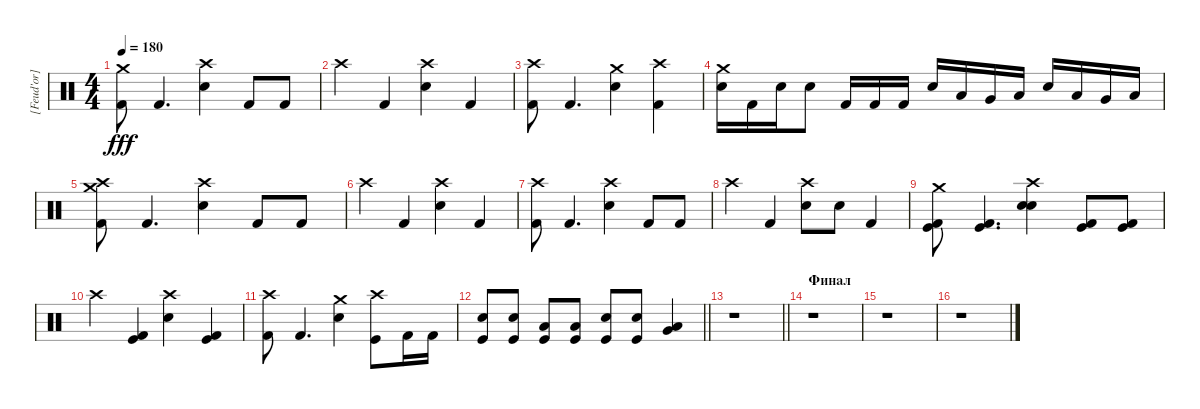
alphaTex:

\track ("[Feud'or] - Drums" "[Feud'or] ") {instrument percussion}
\staff {score}
\articulation defaults
\ts (4 4)
\tempo 180
\clef neutral
\ks c
("Crash medium (hit)" "Kick (hit) 2").8{dy fff} "Kick (hit) 2".4{d} ("Crash high (hit)" "Snare (hit) 2").4 "Kick (hit) 2".8 "Kick (hit) 2".8 |
"Crash high (hit)".4 "Kick (hit) 2".4 ("Crash high (hit)" "Snare (hit) 2").4 "Kick (hit) 2".4 |
("Crash high (hit)" "Kick (hit) 2").8 "Kick (hit) 2".4{d} ("Crash medium (hit)" "Snare (hit) 2").4 ("Crash high (hit)" "Kick (hit) 2").4 |
("Crash medium (hit)" "Snare (hit) 2").16 "Kick (hit) 2".16 "Snare (hit) 2".16 "Snare (hit) 2".8 "Kick (hit) 2".16 "Kick (hit) 2".16 "Kick (hit) 2".16 "Electric Snare (hit)".16 "Low Tom (hit)".16 "Very Low Tom (hit)".16 "Low Floor Tom (hit)".16 "Electric Snare (hit)".16 "Low Tom (hit)".16 "Very Low Tom (hit)".16 "Low Floor Tom (hit)".16 |
("Crash high (hit)" "Crash medium (hit)" "Kick (hit) 2").8 "Kick (hit) 2".4{d} ("Crash high (hit)" "Snare (hit) 2").4 "Kick (hit) 2".8 "Kick (hit) 2".8 |
"Crash high (hit)".4 "Kick (hit) 2".4 ("Crash high (hit)" "Snare (hit) 2").4 "Kick (hit) 2".4 |
("Crash high (hit)" "Kick (hit) 2").8 "Kick (hit) 2".4{d} ("Crash high (hit)" "Snare (hit) 2").4 "Kick (hit) 2".8 "Kick (hit) 2".8 |
"Crash high (hit)".4 "Kick (hit) 2".4 ("Crash high (hit)" "Snare (hit) 2").8 "Snare (hit) 2".8 "Kick (hit) 2".4 |
("Crash medium (hit)" "Kick (hit)" "Kick (hit) 2").8 ("Kick (hit)" "Kick (hit) 2").4{d} ("Crash high (hit)" "Snare (hit) 2" "Electric Snare (hit)").4 ("Kick (hit)" "Kick (hit) 2").8 ("Kick (hit) 2" "Kick (hit)").8 |
"Crash high (hit)".4 ("Kick (hit)" "Kick (hit) 2").4 ("Crash high (hit)" "Snare (hit) 2").4 ("Kick (hit) 2" "Kick (hit)").4 |
("Crash high (hit)" "Kick (hit) 2").8 "Kick (hit) 2".4{d} ("Crash medium (hit)" "Snare (hit) 2").4 ("Crash high (hit)" "Kick (hit)").8 "Kick (hit) 2".16 "Kick (hit) 2".16 |
\barLineRight lightlight
("Kick (hit)" "Electric Snare (hit)").8 ("Kick (hit)" "Electric Snare (hit)").8 ("Kick (hit)" "Low Tom (hit)").8 ("Kick (hit)" "Low Floor Tom (hit)").8 ("Kick (hit)" "Electric Snare (hit)").8 ("Kick (hit)" "Electric Snare (hit)").8 ("Very Low Tom (hit)" "Low Floor Tom (hit)").4 |
\barLineRight lightlight
r.1 |
\section ("" "Финал")
r.1 |
r.1 |
r.1
